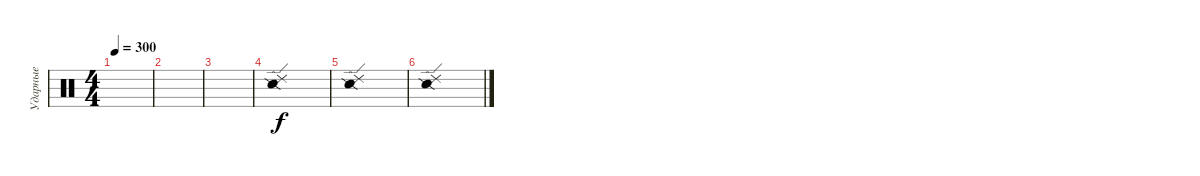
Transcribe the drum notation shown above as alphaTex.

\track ("Ударные" "Ударные") {instrument percussion}
\staff
\articulation defaults
\ts (4 4)
\tempo 300
\clef neutral
\ks c
|
|
|
("Ride (edge) 2" "Snare (side stick) 2").1{dy f} |
("Ride (edge) 2" "Snare (side stick) 2").1 |
("Ride (edge) 2" "Snare (side stick) 2").1
